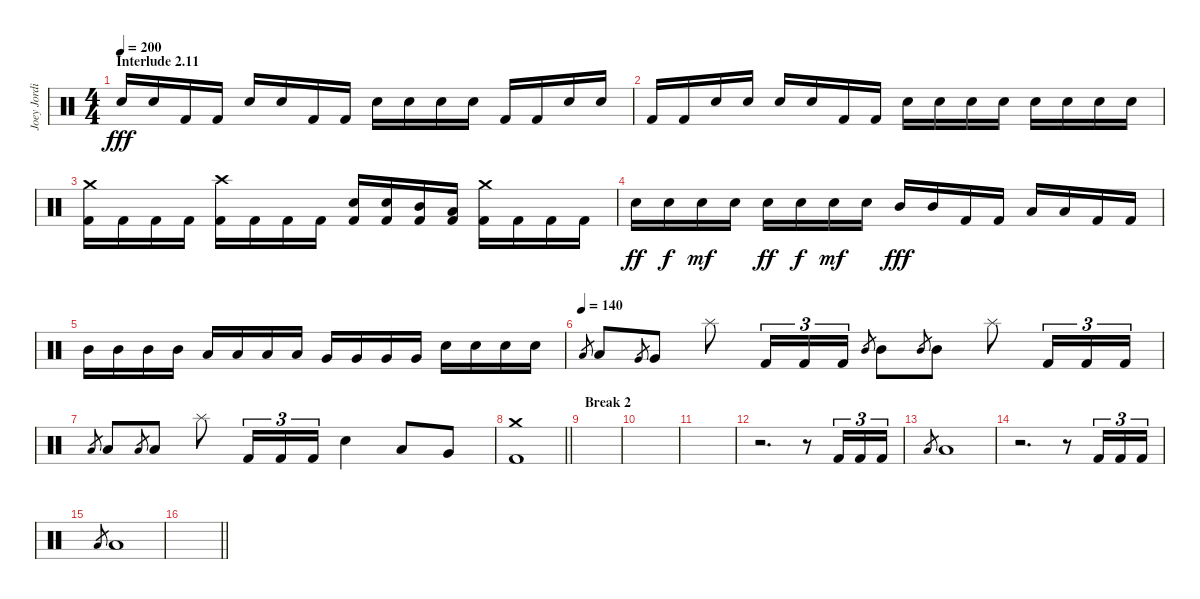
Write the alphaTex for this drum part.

\track ("Joey Jordison" "Joey Jordi") {instrument percussion}
\staff {score}
\articulation defaults
\ts (4 4)
\section ("" "Interlude 2.11")
\tempo 200
\clef neutral
\ks c "Electric Snare (hit)".16{dy fff} "Electric Snare (hit)".16 "Kick (hit) 2".16 "Kick (hit) 2".16 "Electric Snare (hit)".16 "Electric Snare (hit)".16 "Kick (hit) 2".16 "Kick (hit) 2".16 "Electric Snare (hit)".16 "Electric Snare (hit)".16 "Electric Snare (hit)".16 "Electric Snare (hit)".16 "Kick (hit) 2".16 "Kick (hit) 2".16 "Electric Snare (hit)".16 "Electric Snare (hit)".16
|
"Kick (hit) 2".16 "Kick (hit) 2".16 "Electric Snare (hit)".16 "Electric Snare (hit)".16 "Electric Snare (hit)".16 "Electric Snare (hit)".16 "Kick (hit) 2".16 "Kick (hit) 2".16 "Electric Snare (hit)".16 "Electric Snare (hit)".16 "Electric Snare (hit)".16 "Electric Snare (hit)".16 "Electric Snare (hit)".16 "Electric Snare (hit)".16 "Electric Snare (hit)".16 "Electric Snare (hit)".16 |
("Crash medium (hit)" "Kick (hit) 2").16 "Kick (hit) 2".16 "Kick (hit) 2".16 "Kick (hit) 2".16 ("Crash high (hit)" "Kick (hit) 2").16 "Kick (hit) 2".16 "Kick (hit) 2".16 "Kick (hit) 2".16 ("Electric Snare (hit)" "Kick (hit) 2").16 ("Electric Snare (hit)" "Kick (hit) 2").16 ("Mid Tom (hit)" "Kick (hit) 2").16 ("Low Tom (hit)" "Kick (hit) 2").16 ("Crash medium (hit)" "Kick (hit) 2").16 "Kick (hit) 2".16 "Kick (hit) 2".16 "Kick (hit) 2".16 |
"Electric Snare (hit)".16{dy ff} "Electric Snare (hit)".16{dy f} "Electric Snare (hit)".16{dy mf} "Electric Snare (hit)".16 "Electric Snare (hit)".16{dy ff} "Electric Snare (hit)".16{dy f} "Electric Snare (hit)".16{dy mf} "Electric Snare (hit)".16 "Mid Tom (hit)".16{dy fff} "Mid Tom (hit)".16 "Kick (hit) 2".16 "Kick (hit) 2".16 "Low Tom (hit)".16 "Low Tom (hit)".16 "Kick (hit) 2".16 "Kick (hit) 2".16 |
"Mid Tom (hit)".16 "Mid Tom (hit)".16 "Mid Tom (hit)".16 "Mid Tom (hit)".16 "Low Tom (hit)".16 "Low Tom (hit)".16 "Low Tom (hit)".16 "Low Tom (hit)".16 "Very Low Tom (hit)".16 "Very Low Tom (hit)".16 "Very Low Tom (hit)".16 "Very Low Tom (hit)".16 "Electric Snare (hit)".16 "Electric Snare (hit)".16 "Electric Snare (hit)".16 "Electric Snare (hit)".16 |
\tempo (140)
"Low Tom (hit)".8{gr} "Low Tom (hit)".8 "Very Low Tom (hit)".8{gr} "Very Low Tom (hit)".8 "Splash (hit)".8 "Kick (hit) 2".16{tu (3 2)} "Kick (hit) 2".16{tu (3 2)} "Kick (hit) 2".16{tu (3 2)} "Mid Tom (hit)".8{gr} "Mid Tom (hit)".8 "Mid Tom (hit)".8{gr} "Mid Tom (hit)".8 "Splash (hit)".8 "Kick (hit) 2".16{tu (3 2)} "Kick (hit) 2".16{tu (3 2)} "Kick (hit) 2".16{tu (3 2)} |
"Low Tom (hit)".8{gr} "Low Tom (hit)".8 "Low Tom (hit)".8{gr} "Low Tom (hit)".8 "Splash (hit)".8 "Kick (hit) 2".16{tu (3 2)} "Kick (hit) 2".16{tu (3 2)} "Kick (hit) 2".16{tu (3 2)} "Electric Snare (hit)".4 "Low Tom (hit)".8 "Very Low Tom (hit)".8 |
\barLineRight lightlight
("Crash medium (hit)" "Kick (hit) 2").1 |
\section ("" "Break 2")
|
|
|
r.2{d} r.8 "Kick (hit) 2".16{tu (3 2)} "Kick (hit) 2".16{tu (3 2)} "Kick (hit) 2".16{tu (3 2)} |
"Low Floor Tom (hit)".8{gr} "Low Floor Tom (hit)".1 |
r.2{d} r.8 "Kick (hit) 2".16{tu (3 2)} "Kick (hit) 2".16{tu (3 2)} "Kick (hit) 2".16{tu (3 2)} |
"Low Floor Tom (hit)".8{gr} "Low Floor Tom (hit)".1 |
\barLineRight lightlight
